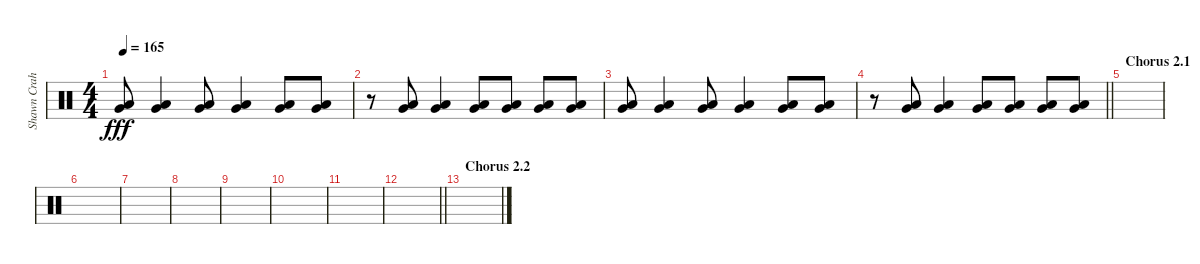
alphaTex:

\track ("Shawn Crahan" "Shawn Crah") {instrument percussion}
\staff {score}
\articulation defaults
\ts (4 4)
\tempo 165
\clef neutral
\ks c
("Very Low Tom (hit)" "Low Floor Tom (hit)").8{dy fff} ("Very Low Tom (hit)" "Low Floor Tom (hit)").4 ("Very Low Tom (hit)" "Low Floor Tom (hit)").8 ("Very Low Tom (hit)" "Low Floor Tom (hit)").4 ("Very Low Tom (hit)" "Low Floor Tom (hit)").8 ("Very Low Tom (hit)" "Low Floor Tom (hit)").8 |
r.8 ("Very Low Tom (hit)" "Low Floor Tom (hit)").8 ("Very Low Tom (hit)" "Low Floor Tom (hit)").4 ("Very Low Tom (hit)" "Low Floor Tom (hit)").8 ("Very Low Tom (hit)" "Low Floor Tom (hit)").8 ("Very Low Tom (hit)" "Low Floor Tom (hit)").8 ("Very Low Tom (hit)" "Low Floor Tom (hit)").8 |
("Very Low Tom (hit)" "Low Floor Tom (hit)").8 ("Very Low Tom (hit)" "Low Floor Tom (hit)").4 ("Very Low Tom (hit)" "Low Floor Tom (hit)").8 ("Very Low Tom (hit)" "Low Floor Tom (hit)").4 ("Very Low Tom (hit)" "Low Floor Tom (hit)").8 ("Very Low Tom (hit)" "Low Floor Tom (hit)").8 |
\barLineRight lightlight
r.8 ("Very Low Tom (hit)" "Low Floor Tom (hit)").8 ("Very Low Tom (hit)" "Low Floor Tom (hit)").4 ("Very Low Tom (hit)" "Low Floor Tom (hit)").8 ("Very Low Tom (hit)" "Low Floor Tom (hit)").8 ("Very Low Tom (hit)" "Low Floor Tom (hit)").8 ("Very Low Tom (hit)" "Low Floor Tom (hit)").8 |
\section ("" "Chorus 2.1")
|
|
|
|
|
|
|
\barLineRight lightlight
|
\section ("" "Chorus 2.2")
